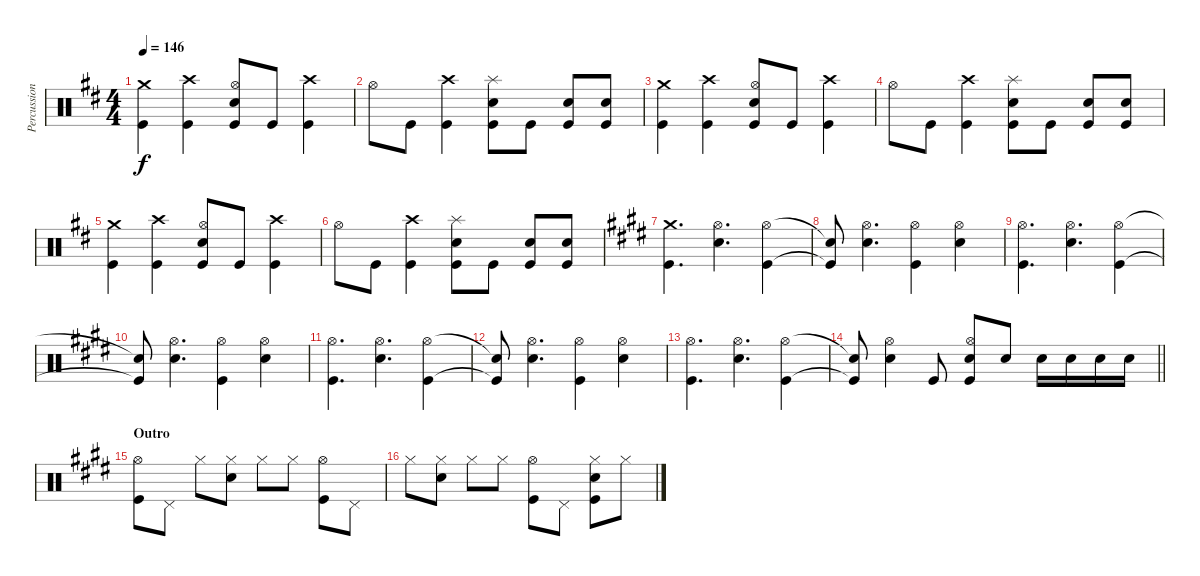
\track ("Percussion" "Percussion") {instrument percussion}
\staff {score}
\articulation defaults
\ts (4 4)
\tempo 146
\clef neutral
\ks d
("Crash medium (hit)" "Kick (hit)").4{dy f} ("Crash high (hit)" "Kick (hit)").4 ("Hi-Hat (open)" "Electric Snare (hit)" "Kick (hit)").8 "Kick (hit)".8 ("Crash high (hit)" "Kick (hit)").4 |
"Hi-Hat (open)".8 "Kick (hit)".8 ("Crash high (hit)" "Kick (hit)").4 ("Splash (hit)" "Electric Snare (hit)" "Kick (hit)").8 "Kick (hit)".8 ("Electric Snare (hit)" "Kick (hit)").8 ("Electric Snare (hit)" "Kick (hit)").8 |
("Crash medium (hit)" "Kick (hit)").4 ("Crash high (hit)" "Kick (hit)").4 ("Hi-Hat (open)" "Electric Snare (hit)" "Kick (hit)").8 "Kick (hit)".8 ("Crash high (hit)" "Kick (hit)").4 |
"Hi-Hat (open)".8 "Kick (hit)".8 ("Crash high (hit)" "Kick (hit)").4 ("Splash (hit)" "Electric Snare (hit)" "Kick (hit)").8 "Kick (hit)".8 ("Electric Snare (hit)" "Kick (hit)").8 ("Electric Snare (hit)" "Kick (hit)").8 |
("Crash medium (hit)" "Kick (hit)").4 ("Crash high (hit)" "Kick (hit)").4 ("Hi-Hat (open)" "Electric Snare (hit)" "Kick (hit)").8 "Kick (hit)".8 ("Crash high (hit)" "Kick (hit)").4 |
"Hi-Hat (open)".8 "Kick (hit)".8 ("Crash high (hit)" "Kick (hit)").4 ("Splash (hit)" "Electric Snare (hit)" "Kick (hit)").8 "Kick (hit)".8 ("Electric Snare (hit)" "Kick (hit)").8 ("Electric Snare (hit)" "Kick (hit)").8 |
\ks e
("Crash medium (hit)" "Kick (hit)").4{d} ("Hi-Hat (open)" "Electric Snare (hit)").4{d} ("Hi-Hat (open)" "Kick (hit)").4 |
("Snare (hit)"{t} "Kick (hit)"{t}).8 ("Hi-Hat (open)" "Electric Snare (hit)").4{d} ("Hi-Hat (open)" "Kick (hit)").4 ("Hi-Hat (open)" "Electric Snare (hit)").4 |
("Hi-Hat (open)" "Kick (hit)").4{d} ("Hi-Hat (open)" "Electric Snare (hit)").4{d} ("Hi-Hat (open)" "Kick (hit)").4 |
("Snare (hit)"{t} "Kick (hit)"{t}).8 ("Hi-Hat (open)" "Electric Snare (hit)").4{d} ("Hi-Hat (open)" "Kick (hit)").4 ("Hi-Hat (open)" "Electric Snare (hit)").4 |
("Hi-Hat (open)" "Kick (hit)").4{d} ("Hi-Hat (open)" "Electric Snare (hit)").4{d} ("Hi-Hat (open)" "Kick (hit)").4 |
("Snare (hit)"{t} "Kick (hit)"{t}).8 ("Hi-Hat (open)" "Electric Snare (hit)").4{d} ("Hi-Hat (open)" "Kick (hit)").4 ("Hi-Hat (open)" "Electric Snare (hit)").4 |
("Hi-Hat (open)" "Kick (hit)").4{d} ("Hi-Hat (open)" "Electric Snare (hit)").4{d} ("Hi-Hat (open)" "Kick (hit)").4 |
\barLineRight lightlight
("Snare (hit)"{t} "Kick (hit)"{t}).8 ("Hi-Hat (open)" "Electric Snare (hit)").4 "Kick (hit)".8 ("Hi-Hat (open)" "Electric Snare (hit)" "Kick (hit)").8 "Electric Snare (hit)".8 "Electric Snare (hit)".16 "Electric Snare (hit)".16 "Electric Snare (hit)".16 "Electric Snare (hit)".16 |
\section ("" "Outro")
("Hi-Hat (open)" "Kick (hit)").8 "Pedal Hi-Hat (hit)".8 "Hi-Hat (closed)".8 ("Hi-Hat (closed)" "Electric Snare (hit)").8 "Hi-Hat (closed)".8 "Hi-Hat (closed)".8 ("Hi-Hat (open)" "Kick (hit)").8 "Pedal Hi-Hat (hit)".8 |
"Hi-Hat (closed)".8 ("Hi-Hat (closed)" "Electric Snare (hit)").8 "Hi-Hat (closed)".8 "Hi-Hat (closed)".8 ("Hi-Hat (open)" "Kick (hit)").8 "Pedal Hi-Hat (hit)".8 ("Hi-Hat (closed)" "Electric Snare (hit)" "Kick (hit)").8 "Hi-Hat (closed)".8
